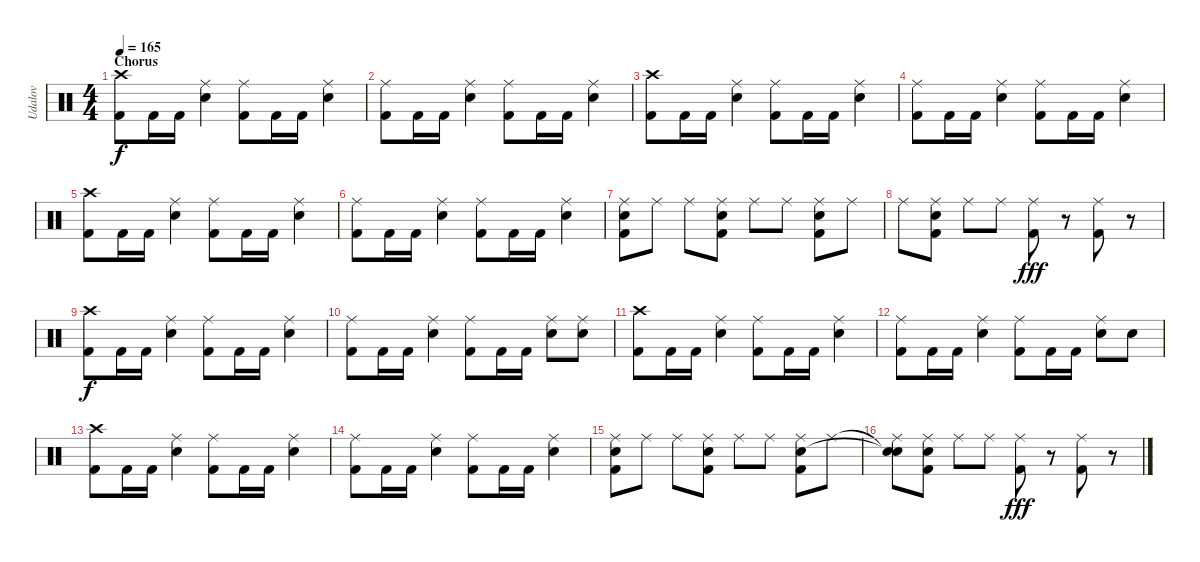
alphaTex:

\track ("Udalov" "Udalov") {instrument percussion}
\staff {score}
\articulation defaults
\ts (4 4)
\section ("" "Chorus")
\tempo 165
\clef neutral
\ks c
("Kick (hit) 2" "Crash high (hit)").8{dy f} "Kick (hit) 2".16 "Kick (hit) 2".16 ("Snare (hit) 2" "Ride (middle)").4 ("Kick (hit) 2" "Ride (middle)").8 "Kick (hit) 2".16 "Kick (hit) 2".16 ("Snare (hit) 2" "Ride (middle)").4 |
("Kick (hit) 2" "Ride (middle)").8 "Kick (hit) 2".16 "Kick (hit) 2".16 ("Snare (hit) 2" "Ride (middle)").4 ("Kick (hit) 2" "Ride (middle)").8 "Kick (hit) 2".16 "Kick (hit) 2".16 ("Snare (hit) 2" "Ride (middle)").4 |
("Kick (hit) 2" "Crash high (hit)").8 "Kick (hit) 2".16 "Kick (hit) 2".16 ("Snare (hit) 2" "Ride (middle)").4 ("Kick (hit) 2" "Ride (middle)").8 "Kick (hit) 2".16 "Kick (hit) 2".16 ("Snare (hit) 2" "Ride (middle)").4 |
("Kick (hit) 2" "Ride (middle)").8 "Kick (hit) 2".16 "Kick (hit) 2".16 ("Snare (hit) 2" "Ride (middle)").4 ("Kick (hit) 2" "Ride (middle)").8 "Kick (hit) 2".16 "Kick (hit) 2".16 ("Snare (hit) 2" "Ride (middle)").4 |
("Kick (hit) 2" "Crash high (hit)").8 "Kick (hit) 2".16 "Kick (hit) 2".16 ("Snare (hit) 2" "Ride (middle)").4 ("Kick (hit) 2" "Ride (middle)").8 "Kick (hit) 2".16 "Kick (hit) 2".16 ("Snare (hit) 2" "Ride (middle)").4 |
("Kick (hit) 2" "Ride (middle)").8 "Kick (hit) 2".16 "Kick (hit) 2".16 ("Snare (hit) 2" "Ride (middle)").4 ("Kick (hit) 2" "Ride (middle)").8 "Kick (hit) 2".16 "Kick (hit) 2".16 ("Snare (hit) 2" "Ride (middle)").4 |
("Kick (hit) 2" "Electric Snare (hit)" "Ride (middle)").8 "Ride (middle)".8 "Ride (middle)".8 ("Kick (hit) 2" "Electric Snare (hit)" "Ride (middle)").8 "Ride (middle)".8 "Ride (middle)".8 ("Kick (hit) 2" "Electric Snare (hit)" "Ride (middle)").8 "Ride (middle)".8 |
"Ride (middle)".8 ("Electric Snare (hit)" "Kick (hit) 2" "Ride (middle)").8 "Ride (middle)".8 "Ride (middle)".8 ("Ride (middle)" "Kick (hit) 2").8{dy fff} r.8 ("Ride (middle)" "Kick (hit) 2").8 r.8 |
("Kick (hit) 2" "Crash high (hit)").8{dy f} "Kick (hit) 2".16 "Kick (hit) 2".16 ("Snare (hit) 2" "Ride (middle)").4 ("Kick (hit) 2" "Ride (middle)").8 "Kick (hit) 2".16 "Kick (hit) 2".16 ("Snare (hit) 2" "Ride (middle)").4 |
("Kick (hit) 2" "Ride (middle)").8 "Kick (hit) 2".16 "Kick (hit) 2".16 ("Snare (hit) 2" "Ride (middle)").4 ("Kick (hit) 2" "Ride (middle)").8 "Kick (hit) 2".16 "Kick (hit) 2".16 ("Snare (hit) 2" "Ride (middle)").8 ("Snare (hit) 2" "Ride (middle)").8 |
("Kick (hit) 2" "Crash high (hit)").8 "Kick (hit) 2".16 "Kick (hit) 2".16 ("Snare (hit) 2" "Ride (middle)").4 ("Kick (hit) 2" "Ride (middle)").8 "Kick (hit) 2".16 "Kick (hit) 2".16 ("Snare (hit) 2" "Ride (middle)").4 |
("Kick (hit) 2" "Ride (middle)").8 "Kick (hit) 2".16 "Kick (hit) 2".16 ("Snare (hit) 2" "Ride (middle)").4 ("Kick (hit) 2" "Ride (middle)").8 "Kick (hit) 2".16 "Kick (hit) 2".16 ("Snare (hit) 2" "Ride (middle)").8 "Snare (hit) 2".8 |
("Kick (hit) 2" "Crash high (hit)").8 "Kick (hit) 2".16 "Kick (hit) 2".16 ("Snare (hit) 2" "Ride (middle)").4 ("Kick (hit) 2" "Ride (middle)").8 "Kick (hit) 2".16 "Kick (hit) 2".16 ("Snare (hit) 2" "Ride (middle)").4 |
("Kick (hit) 2" "Ride (middle)").8 "Kick (hit) 2".16 "Kick (hit) 2".16 ("Snare (hit) 2" "Ride (middle)").4 ("Kick (hit) 2" "Ride (middle)").8 "Kick (hit) 2".16 "Kick (hit) 2".16 ("Snare (hit) 2" "Ride (middle)").4 |
("Kick (hit) 2" "Electric Snare (hit)" "Ride (middle)").8 "Ride (middle)".8 "Ride (middle)".8 ("Kick (hit) 2" "Electric Snare (hit)" "Ride (middle)").8 "Ride (middle)".8 "Ride (middle)".8 ("Kick (hit) 2" "Electric Snare (hit)" "Ride (middle)").8 "Ride (middle)".8 |
("Snare (hit)"{t} "Snare (hit)"{t} "Ride (middle)").8 ("Electric Snare (hit)" "Kick (hit) 2" "Ride (middle)").8 "Ride (middle)".8 "Ride (middle)".8 ("Ride (middle)" "Kick (hit) 2").8{dy fff} r.8 ("Ride (middle)" "Kick (hit) 2").8 r.8
